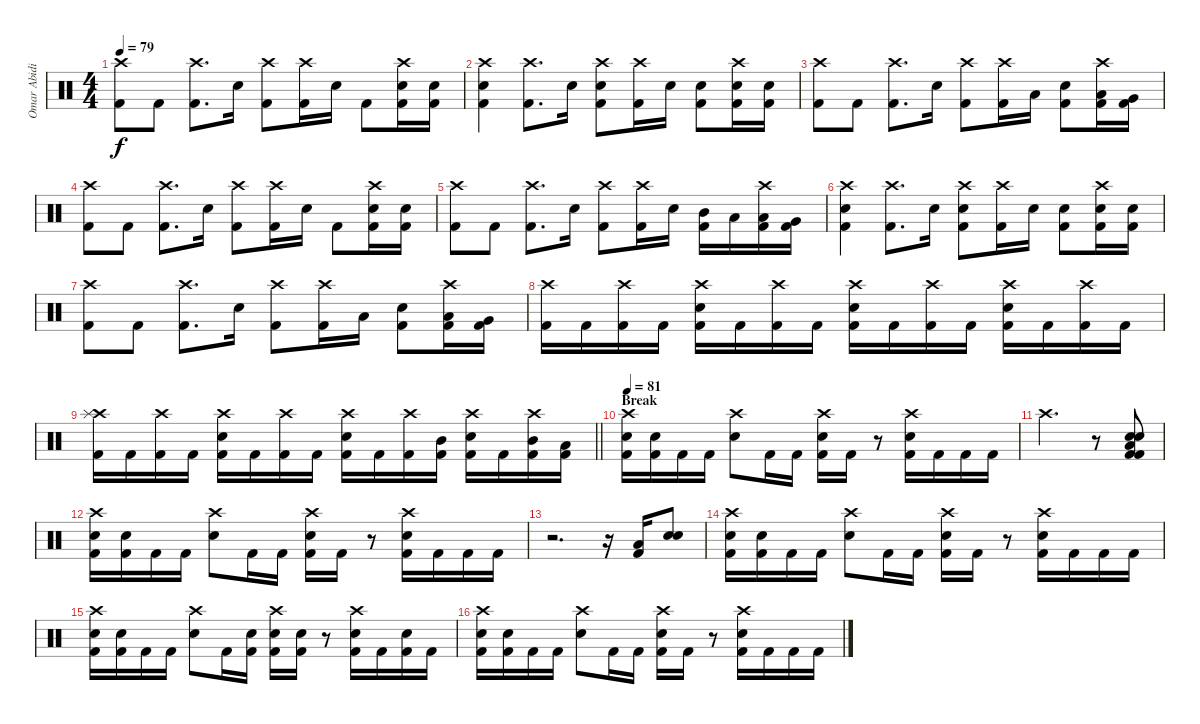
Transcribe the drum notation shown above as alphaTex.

\track ("Omar Abidi" "Omar Abidi") {instrument percussion}
\staff {score}
\articulation defaults
\ts (4 4)
\tempo 79
\clef neutral
\ks c
("Crash high (hit)" "Kick (hit) 2").8{dy f} "Kick (hit) 2".8 ("Crash high (hit)" "Kick (hit) 2").8{d} "Electric Snare (hit)".16 ("Crash high (hit)" "Kick (hit) 2").8 ("Crash high (hit)" "Kick (hit) 2").16 "Electric Snare (hit)".16 "Kick (hit) 2".8 ("Crash high (hit)" "Electric Snare (hit)" "Kick (hit) 2").16 ("Electric Snare (hit)" "Kick (hit) 2").16 |
("Crash high (hit)" "Electric Snare (hit)" "Kick (hit) 2").4 ("Crash high (hit)" "Kick (hit) 2").8{d} "Electric Snare (hit)".16 ("Crash high (hit)" "Electric Snare (hit)" "Kick (hit) 2").8 ("Crash high (hit)" "Kick (hit) 2").16 "Electric Snare (hit)".16 ("Electric Snare (hit)" "Kick (hit) 2").8 ("Crash high (hit)" "Electric Snare (hit)" "Kick (hit) 2").16 ("Electric Snare (hit)" "Kick (hit) 2").16 |
("Crash high (hit)" "Kick (hit) 2").8 "Kick (hit) 2".8 ("Crash high (hit)" "Kick (hit) 2").8{d} "Electric Snare (hit)".16 ("Crash high (hit)" "Kick (hit) 2").8 ("Crash high (hit)" "Kick (hit) 2").16 "Low Tom (hit)".16 ("Electric Snare (hit)" "Kick (hit) 2").8 ("Crash high (hit)" "Low Tom (hit)" "Kick (hit) 2").16 ("Very Low Tom (hit)" "Kick (hit) 2").16 |
("Crash high (hit)" "Kick (hit) 2").8 "Kick (hit) 2".8 ("Crash high (hit)" "Kick (hit) 2").8{d} "Electric Snare (hit)".16 ("Crash high (hit)" "Kick (hit) 2").8 ("Crash high (hit)" "Kick (hit) 2").16 "Electric Snare (hit)".16 "Kick (hit) 2".8 ("Crash high (hit)" "Electric Snare (hit)" "Kick (hit) 2").16 ("Electric Snare (hit)" "Kick (hit) 2").16 |
("Crash high (hit)" "Kick (hit) 2").8 "Kick (hit) 2".8 ("Crash high (hit)" "Kick (hit) 2").8{d} "Electric Snare (hit)".16 ("Crash high (hit)" "Kick (hit) 2").8 ("Crash high (hit)" "Kick (hit) 2").16 "Electric Snare (hit)".16 ("Mid Tom (hit)" "Kick (hit) 2").16 "Low Tom (hit)".16 ("Crash high (hit)" "Low Tom (hit)" "Kick (hit) 2").16 ("Very Low Tom (hit)" "Kick (hit) 2").16 |
("Crash high (hit)" "Electric Snare (hit)" "Kick (hit) 2").4 ("Crash high (hit)" "Kick (hit) 2").8{d} "Electric Snare (hit)".16 ("Crash high (hit)" "Electric Snare (hit)" "Kick (hit) 2").8 ("Crash high (hit)" "Kick (hit) 2").16 "Electric Snare (hit)".16 ("Electric Snare (hit)" "Kick (hit) 2").8 ("Crash high (hit)" "Electric Snare (hit)" "Kick (hit) 2").16 ("Electric Snare (hit)" "Kick (hit) 2").16 |
("Crash high (hit)" "Kick (hit) 2").8 "Kick (hit) 2".8 ("Crash high (hit)" "Kick (hit) 2").8{d} "Electric Snare (hit)".16 ("Crash high (hit)" "Kick (hit) 2").8 ("Crash high (hit)" "Kick (hit) 2").16 "Low Tom (hit)".16 ("Electric Snare (hit)" "Kick (hit) 2").8 ("Crash high (hit)" "Low Tom (hit)" "Kick (hit) 2").16 ("Very Low Tom (hit)" "Kick (hit) 2").16 |
("Crash high (hit)" "Kick (hit) 2").16 "Kick (hit) 2".16 ("Crash high (hit)" "Kick (hit) 2").16 "Kick (hit) 2".16 ("Crash high (hit)" "Electric Snare (hit)" "Kick (hit) 2").16 "Kick (hit) 2".16 ("Crash high (hit)" "Kick (hit) 2").16 "Kick (hit) 2".16 ("Crash high (hit)" "Electric Snare (hit)" "Kick (hit) 2").16 "Kick (hit) 2".16 ("Crash high (hit)" "Kick (hit) 2").16 "Kick (hit) 2".16 ("Crash high (hit)" "Electric Snare (hit)" "Kick (hit) 2").16 "Kick (hit) 2".16 ("Crash high (hit)" "Kick (hit) 2").16 "Kick (hit) 2".16 |
\barLineRight lightlight
("Crash high (hit)" "Splash (hit)" "Kick (hit) 2").16 "Kick (hit) 2".16 ("Crash high (hit)" "Kick (hit) 2").16 "Kick (hit) 2".16 ("Crash high (hit)" "Electric Snare (hit)" "Kick (hit) 2").16 "Kick (hit) 2".16 ("Crash high (hit)" "Kick (hit) 2").16 "Kick (hit) 2".16 ("Crash high (hit)" "Electric Snare (hit)" "Kick (hit) 2").16 "Kick (hit) 2".16 ("Crash high (hit)" "Kick (hit) 2").16 ("Mid Tom (hit)" "Kick (hit) 2").16 ("Crash high (hit)" "Electric Snare (hit)" "Kick (hit) 2").16 "Kick (hit) 2".16 ("Crash high (hit)" "Mid Tom (hit)" "Kick (hit) 2").16 ("Low Tom (hit)" "Kick (hit) 2").16 |
\section ("" "Break")
\tempo 81
("Crash high (hit)" "Electric Snare (hit)" "Kick (hit) 2").16 ("Electric Snare (hit)" "Kick (hit) 2").16 "Kick (hit) 2".16 "Kick (hit) 2".16 ("Crash high (hit)" "Electric Snare (hit)").8 "Kick (hit) 2".16 "Kick (hit) 2".16 ("Crash high (hit)" "Electric Snare (hit)" "Kick (hit) 2").16 "Kick (hit) 2".16 r.8 ("Crash high (hit)" "Electric Snare (hit)" "Kick (hit) 2").16 "Kick (hit) 2".16 "Kick (hit) 2".16 "Kick (hit) 2".16 |
"Crash high (hit)".2{d} r.8 ("Kick (hit) 2" "Low Tom (hit)" "Electric Snare (hit)" "Electric Snare (hit)" "Kick (hit) 2").8{bd 120} |
("Crash high (hit)" "Electric Snare (hit)" "Kick (hit) 2").16 ("Electric Snare (hit)" "Kick (hit) 2").16 "Kick (hit) 2".16 "Kick (hit) 2".16 ("Crash high (hit)" "Electric Snare (hit)").8 "Kick (hit) 2".16 "Kick (hit) 2".16 ("Crash high (hit)" "Electric Snare (hit)" "Kick (hit) 2").16 "Kick (hit) 2".16 r.8 ("Crash high (hit)" "Electric Snare (hit)" "Kick (hit) 2").16 "Kick (hit) 2".16 "Kick (hit) 2".16 "Kick (hit) 2".16 |
r.2{d} r.16 ("Low Tom (hit)" "Kick (hit) 2").16 ("Electric Snare (hit)" "Electric Snare (hit)").8{bd 120} |
("Crash high (hit)" "Electric Snare (hit)" "Kick (hit) 2").16 ("Electric Snare (hit)" "Kick (hit) 2").16 "Kick (hit) 2".16 "Kick (hit) 2".16 ("Crash high (hit)" "Electric Snare (hit)").8 "Kick (hit) 2".16 "Kick (hit) 2".16 ("Crash high (hit)" "Electric Snare (hit)" "Kick (hit) 2").16 "Kick (hit) 2".16 r.8 ("Crash high (hit)" "Electric Snare (hit)" "Kick (hit) 2").16 "Kick (hit) 2".16 "Kick (hit) 2".16 "Kick (hit) 2".16 |
("Crash high (hit)" "Electric Snare (hit)" "Kick (hit) 2").16 ("Electric Snare (hit)" "Kick (hit) 2").16 "Kick (hit) 2".16 "Kick (hit) 2".16 ("Crash high (hit)" "Electric Snare (hit)").8 "Kick (hit) 2".16 ("Electric Snare (hit)" "Kick (hit) 2").16 ("Crash high (hit)" "Electric Snare (hit)" "Kick (hit) 2").16 ("Electric Snare (hit)" "Kick (hit) 2").16 r.8 ("Crash high (hit)" "Electric Snare (hit)" "Kick (hit) 2").16 "Kick (hit) 2".16 ("Electric Snare (hit)" "Kick (hit) 2").16 "Kick (hit) 2".16 |
("Crash high (hit)" "Electric Snare (hit)" "Kick (hit) 2").16 ("Electric Snare (hit)" "Kick (hit) 2").16 "Kick (hit) 2".16 "Kick (hit) 2".16 ("Crash high (hit)" "Electric Snare (hit)").8 "Kick (hit) 2".16 "Kick (hit) 2".16 ("Crash high (hit)" "Electric Snare (hit)" "Kick (hit) 2").16 "Kick (hit) 2".16 r.8 ("Crash high (hit)" "Electric Snare (hit)" "Kick (hit) 2").16 "Kick (hit) 2".16 "Kick (hit) 2".16 "Kick (hit) 2".16
